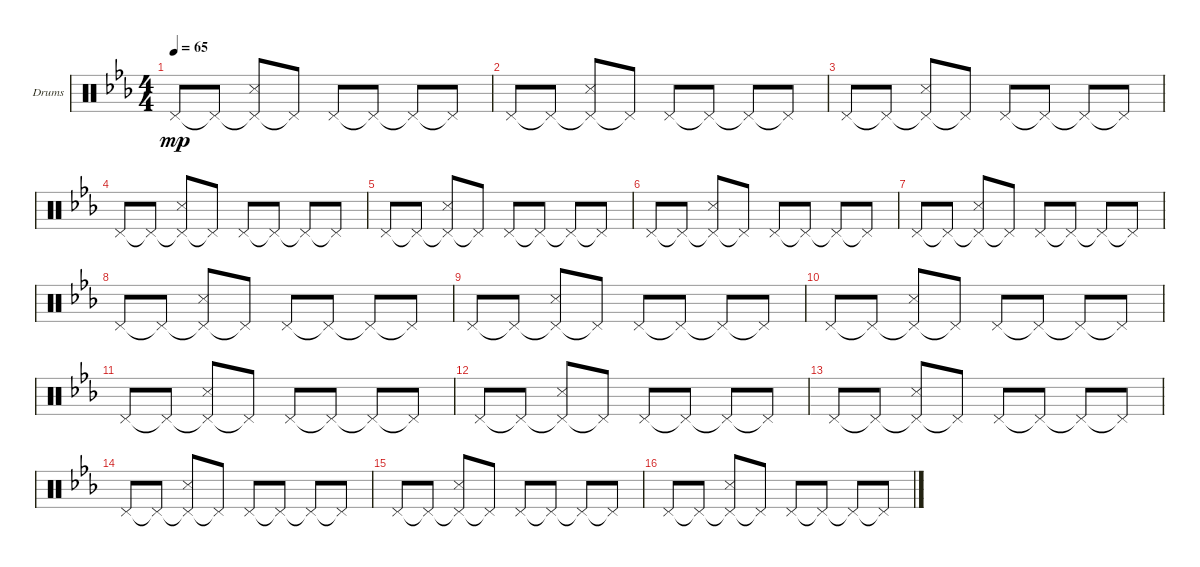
\defaultSystemsLayout 4
\bracketExtendMode groupsimilarinstruments
\firstSystemTrackNameOrientation horizontal
\otherSystemsTrackNameOrientation horizontal
\track ("Drum" "Drums") {multiBarRest instrument percussion}
\staff {score}
\articulation defaults
\ts (4 4)
\tempo 65
\clef neutral
\ks cminor "Pedal Hi-Hat (hit)".8{dy mp} "Pedal Hi-Hat (hit)"{t}.8
("Pedal Hi-Hat (hit)"{t} "Snare (side stick) 3").8 "Pedal Hi-Hat (hit)"{t}.8 "Pedal Hi-Hat (hit)".8 "Pedal Hi-Hat (hit)"{t}.8 "Pedal Hi-Hat (hit)"{t}.8 "Pedal Hi-Hat (hit)"{t}.8 |
"Pedal Hi-Hat (hit)".8 "Pedal Hi-Hat (hit)"{t}.8 ("Pedal Hi-Hat (hit)"{t} "Snare (side stick) 3").8 "Pedal Hi-Hat (hit)"{t}.8 "Pedal Hi-Hat (hit)".8 "Pedal Hi-Hat (hit)"{t}.8 "Pedal Hi-Hat (hit)"{t}.8 "Pedal Hi-Hat (hit)"{t}.8 |
"Pedal Hi-Hat (hit)".8 "Pedal Hi-Hat (hit)"{t}.8 ("Pedal Hi-Hat (hit)"{t} "Snare (side stick) 3").8 "Pedal Hi-Hat (hit)"{t}.8 "Pedal Hi-Hat (hit)".8 "Pedal Hi-Hat (hit)"{t}.8 "Pedal Hi-Hat (hit)"{t}.8 "Pedal Hi-Hat (hit)"{t}.8 |
"Pedal Hi-Hat (hit)".8 "Pedal Hi-Hat (hit)"{t}.8 ("Pedal Hi-Hat (hit)"{t} "Snare (side stick) 3").8 "Pedal Hi-Hat (hit)"{t}.8 "Pedal Hi-Hat (hit)".8 "Pedal Hi-Hat (hit)"{t}.8 "Pedal Hi-Hat (hit)"{t}.8 "Pedal Hi-Hat (hit)"{t}.8 |
"Pedal Hi-Hat (hit)".8 "Pedal Hi-Hat (hit)"{t}.8 ("Pedal Hi-Hat (hit)"{t} "Snare (side stick) 3").8 "Pedal Hi-Hat (hit)"{t}.8 "Pedal Hi-Hat (hit)".8 "Pedal Hi-Hat (hit)"{t}.8 "Pedal Hi-Hat (hit)"{t}.8 "Pedal Hi-Hat (hit)"{t}.8 |
"Pedal Hi-Hat (hit)".8 "Pedal Hi-Hat (hit)"{t}.8 ("Pedal Hi-Hat (hit)"{t} "Snare (side stick) 3").8 "Pedal Hi-Hat (hit)"{t}.8 "Pedal Hi-Hat (hit)".8 "Pedal Hi-Hat (hit)"{t}.8 "Pedal Hi-Hat (hit)"{t}.8 "Pedal Hi-Hat (hit)"{t}.8 |
"Pedal Hi-Hat (hit)".8 "Pedal Hi-Hat (hit)"{t}.8 ("Pedal Hi-Hat (hit)"{t} "Snare (side stick) 3").8 "Pedal Hi-Hat (hit)"{t}.8 "Pedal Hi-Hat (hit)".8 "Pedal Hi-Hat (hit)"{t}.8 "Pedal Hi-Hat (hit)"{t}.8 "Pedal Hi-Hat (hit)"{t}.8 |
"Pedal Hi-Hat (hit)".8 "Pedal Hi-Hat (hit)"{t}.8 ("Pedal Hi-Hat (hit)"{t} "Snare (side stick) 3").8 "Pedal Hi-Hat (hit)"{t}.8 "Pedal Hi-Hat (hit)".8 "Pedal Hi-Hat (hit)"{t}.8 "Pedal Hi-Hat (hit)"{t}.8 "Pedal Hi-Hat (hit)"{t}.8 |
"Pedal Hi-Hat (hit)".8 "Pedal Hi-Hat (hit)"{t}.8 ("Pedal Hi-Hat (hit)"{t} "Snare (side stick) 3").8 "Pedal Hi-Hat (hit)"{t}.8 "Pedal Hi-Hat (hit)".8 "Pedal Hi-Hat (hit)"{t}.8 "Pedal Hi-Hat (hit)"{t}.8 "Pedal Hi-Hat (hit)"{t}.8 |
"Pedal Hi-Hat (hit)".8 "Pedal Hi-Hat (hit)"{t}.8 ("Pedal Hi-Hat (hit)"{t} "Snare (side stick) 3").8 "Pedal Hi-Hat (hit)"{t}.8 "Pedal Hi-Hat (hit)".8 "Pedal Hi-Hat (hit)"{t}.8 "Pedal Hi-Hat (hit)"{t}.8 "Pedal Hi-Hat (hit)"{t}.8 |
"Pedal Hi-Hat (hit)".8 "Pedal Hi-Hat (hit)"{t}.8 ("Pedal Hi-Hat (hit)"{t} "Snare (side stick) 3").8 "Pedal Hi-Hat (hit)"{t}.8 "Pedal Hi-Hat (hit)".8 "Pedal Hi-Hat (hit)"{t}.8 "Pedal Hi-Hat (hit)"{t}.8 "Pedal Hi-Hat (hit)"{t}.8 |
"Pedal Hi-Hat (hit)".8 "Pedal Hi-Hat (hit)"{t}.8 ("Pedal Hi-Hat (hit)"{t} "Snare (side stick) 3").8 "Pedal Hi-Hat (hit)"{t}.8 "Pedal Hi-Hat (hit)".8 "Pedal Hi-Hat (hit)"{t}.8 "Pedal Hi-Hat (hit)"{t}.8 "Pedal Hi-Hat (hit)"{t}.8 |
"Pedal Hi-Hat (hit)".8 "Pedal Hi-Hat (hit)"{t}.8 ("Pedal Hi-Hat (hit)"{t} "Snare (side stick) 3").8 "Pedal Hi-Hat (hit)"{t}.8 "Pedal Hi-Hat (hit)".8 "Pedal Hi-Hat (hit)"{t}.8 "Pedal Hi-Hat (hit)"{t}.8 "Pedal Hi-Hat (hit)"{t}.8 |
"Pedal Hi-Hat (hit)".8 "Pedal Hi-Hat (hit)"{t}.8 ("Pedal Hi-Hat (hit)"{t} "Snare (side stick) 3").8 "Pedal Hi-Hat (hit)"{t}.8 "Pedal Hi-Hat (hit)".8 "Pedal Hi-Hat (hit)"{t}.8 "Pedal Hi-Hat (hit)"{t}.8 "Pedal Hi-Hat (hit)"{t}.8 |
"Pedal Hi-Hat (hit)".8 "Pedal Hi-Hat (hit)"{t}.8 ("Pedal Hi-Hat (hit)"{t} "Snare (side stick) 3").8 "Pedal Hi-Hat (hit)"{t}.8 "Pedal Hi-Hat (hit)".8 "Pedal Hi-Hat (hit)"{t}.8 "Pedal Hi-Hat (hit)"{t}.8 "Pedal Hi-Hat (hit)"{t}.8 |
"Pedal Hi-Hat (hit)".8 "Pedal Hi-Hat (hit)"{t}.8 ("Pedal Hi-Hat (hit)"{t} "Snare (side stick) 3").8 "Pedal Hi-Hat (hit)"{t}.8 "Pedal Hi-Hat (hit)".8 "Pedal Hi-Hat (hit)"{t}.8 "Pedal Hi-Hat (hit)"{t}.8 "Pedal Hi-Hat (hit)"{t}.8
